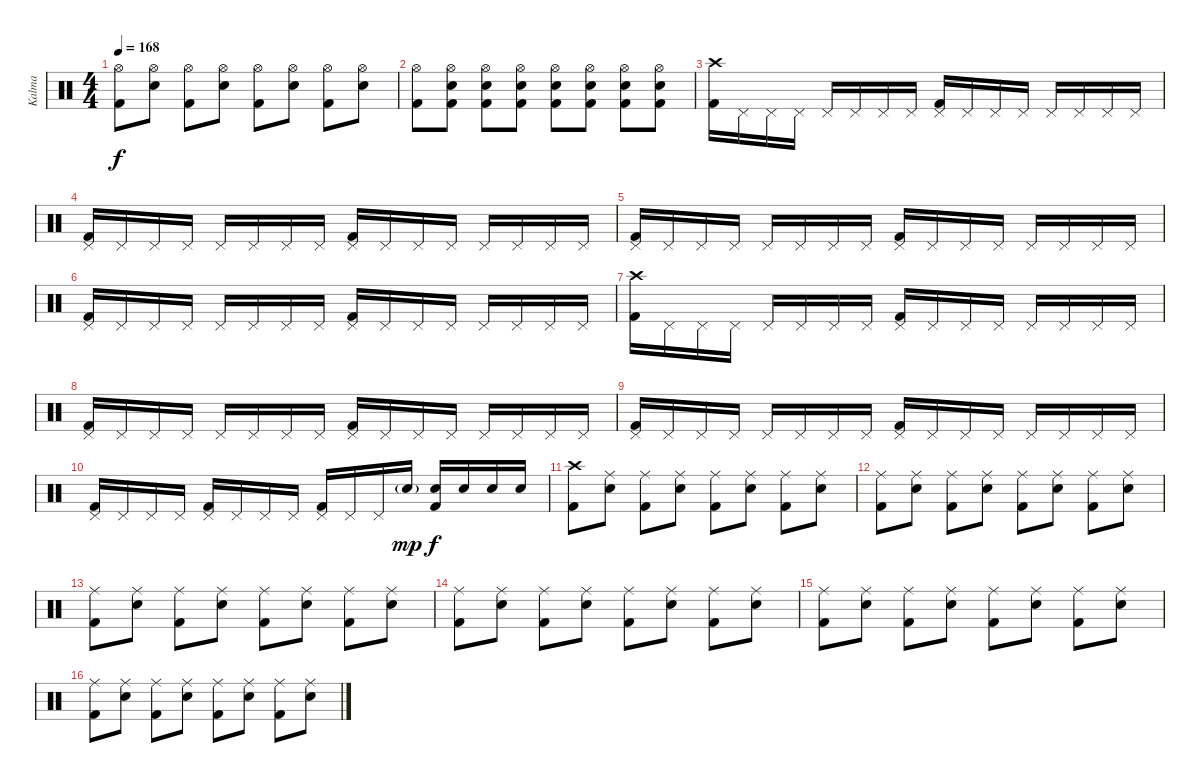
\track ("Kalma" "Kalma") {instrument percussion}
\staff {score}
\articulation defaults
\ts (4 4)
\tempo 168
\clef neutral
\ks c
("Hi-Hat (open)" "Kick (hit) 2").8{dy f} ("Hi-Hat (open)" "Snare (hit) 2").8 ("Hi-Hat (open)" "Kick (hit) 2").8 ("Hi-Hat (open)" "Snare (hit) 2").8 ("Hi-Hat (open)" "Kick (hit) 2").8 ("Hi-Hat (open)" "Snare (hit) 2").8 ("Hi-Hat (open)" "Kick (hit) 2").8 ("Hi-Hat (open)" "Snare (hit) 2").8 |
("Hi-Hat (open)" "Kick (hit) 2").8 ("Hi-Hat (open)" "Snare (hit) 2" "Kick (hit) 2").8 ("Hi-Hat (open)" "Snare (hit) 2" "Kick (hit) 2").8 ("Hi-Hat (open)" "Snare (hit) 2" "Kick (hit) 2").8 ("Hi-Hat (open)" "Snare (hit) 2" "Kick (hit) 2").8 ("Hi-Hat (open)" "Snare (hit) 2" "Kick (hit) 2").8 ("Hi-Hat (open)" "Snare (hit) 2" "Kick (hit) 2").8 ("Hi-Hat (open)" "Snare (hit) 2" "Kick (hit) 2").8 |
("Crash high (hit)" "Kick (hit) 2").16 "Pedal Hi-Hat (hit)".16 "Pedal Hi-Hat (hit)".16 "Pedal Hi-Hat (hit)".16 "Pedal Hi-Hat (hit)".16 "Pedal Hi-Hat (hit)".16 "Pedal Hi-Hat (hit)".16 "Pedal Hi-Hat (hit)".16 ("Pedal Hi-Hat (hit)" "Kick (hit) 2").16 "Pedal Hi-Hat (hit)".16 "Pedal Hi-Hat (hit)".16 "Pedal Hi-Hat (hit)".16 "Pedal Hi-Hat (hit)".16 "Pedal Hi-Hat (hit)".16 "Pedal Hi-Hat (hit)".16 "Pedal Hi-Hat (hit)".16 |
("Pedal Hi-Hat (hit)" "Kick (hit) 2").16 "Pedal Hi-Hat (hit)".16 "Pedal Hi-Hat (hit)".16 "Pedal Hi-Hat (hit)".16 "Pedal Hi-Hat (hit)".16 "Pedal Hi-Hat (hit)".16 "Pedal Hi-Hat (hit)".16 "Pedal Hi-Hat (hit)".16 ("Pedal Hi-Hat (hit)" "Kick (hit) 2").16 "Pedal Hi-Hat (hit)".16 "Pedal Hi-Hat (hit)".16 "Pedal Hi-Hat (hit)".16 "Pedal Hi-Hat (hit)".16 "Pedal Hi-Hat (hit)".16 "Pedal Hi-Hat (hit)".16 "Pedal Hi-Hat (hit)".16 |
("Pedal Hi-Hat (hit)" "Kick (hit) 2").16 "Pedal Hi-Hat (hit)".16 "Pedal Hi-Hat (hit)".16 "Pedal Hi-Hat (hit)".16 "Pedal Hi-Hat (hit)".16 "Pedal Hi-Hat (hit)".16 "Pedal Hi-Hat (hit)".16 "Pedal Hi-Hat (hit)".16 ("Pedal Hi-Hat (hit)" "Kick (hit) 2").16 "Pedal Hi-Hat (hit)".16 "Pedal Hi-Hat (hit)".16 "Pedal Hi-Hat (hit)".16 "Pedal Hi-Hat (hit)".16 "Pedal Hi-Hat (hit)".16 "Pedal Hi-Hat (hit)".16 "Pedal Hi-Hat (hit)".16 |
("Pedal Hi-Hat (hit)" "Kick (hit) 2").16 "Pedal Hi-Hat (hit)".16 "Pedal Hi-Hat (hit)".16 "Pedal Hi-Hat (hit)".16 "Pedal Hi-Hat (hit)".16 "Pedal Hi-Hat (hit)".16 "Pedal Hi-Hat (hit)".16 "Pedal Hi-Hat (hit)".16 ("Pedal Hi-Hat (hit)" "Kick (hit) 2").16 "Pedal Hi-Hat (hit)".16 "Pedal Hi-Hat (hit)".16 "Pedal Hi-Hat (hit)".16 "Pedal Hi-Hat (hit)".16 "Pedal Hi-Hat (hit)".16 "Pedal Hi-Hat (hit)".16 "Pedal Hi-Hat (hit)".16 |
("Crash high (hit)" "Kick (hit) 2").16 "Pedal Hi-Hat (hit)".16 "Pedal Hi-Hat (hit)".16 "Pedal Hi-Hat (hit)".16 "Pedal Hi-Hat (hit)".16 "Pedal Hi-Hat (hit)".16 "Pedal Hi-Hat (hit)".16 "Pedal Hi-Hat (hit)".16 ("Pedal Hi-Hat (hit)" "Kick (hit) 2").16 "Pedal Hi-Hat (hit)".16 "Pedal Hi-Hat (hit)".16 "Pedal Hi-Hat (hit)".16 "Pedal Hi-Hat (hit)".16 "Pedal Hi-Hat (hit)".16 "Pedal Hi-Hat (hit)".16 "Pedal Hi-Hat (hit)".16 |
("Pedal Hi-Hat (hit)" "Kick (hit) 2").16 "Pedal Hi-Hat (hit)".16 "Pedal Hi-Hat (hit)".16 "Pedal Hi-Hat (hit)".16 "Pedal Hi-Hat (hit)".16 "Pedal Hi-Hat (hit)".16 "Pedal Hi-Hat (hit)".16 "Pedal Hi-Hat (hit)".16 ("Pedal Hi-Hat (hit)" "Kick (hit) 2").16 "Pedal Hi-Hat (hit)".16 "Pedal Hi-Hat (hit)".16 "Pedal Hi-Hat (hit)".16 "Pedal Hi-Hat (hit)".16 "Pedal Hi-Hat (hit)".16 "Pedal Hi-Hat (hit)".16 "Pedal Hi-Hat (hit)".16 |
("Pedal Hi-Hat (hit)" "Kick (hit) 2").16 "Pedal Hi-Hat (hit)".16 "Pedal Hi-Hat (hit)".16 "Pedal Hi-Hat (hit)".16 "Pedal Hi-Hat (hit)".16 "Pedal Hi-Hat (hit)".16 "Pedal Hi-Hat (hit)".16 "Pedal Hi-Hat (hit)".16 ("Pedal Hi-Hat (hit)" "Kick (hit) 2").16 "Pedal Hi-Hat (hit)".16 "Pedal Hi-Hat (hit)".16 "Pedal Hi-Hat (hit)".16 "Pedal Hi-Hat (hit)".16 "Pedal Hi-Hat (hit)".16 "Pedal Hi-Hat (hit)".16 "Pedal Hi-Hat (hit)".16 |
("Pedal Hi-Hat (hit)" "Kick (hit) 2").16 "Pedal Hi-Hat (hit)".16 "Pedal Hi-Hat (hit)".16 "Pedal Hi-Hat (hit)".16 ("Pedal Hi-Hat (hit)" "Kick (hit) 2").16 "Pedal Hi-Hat (hit)".16 "Pedal Hi-Hat (hit)".16 "Pedal Hi-Hat (hit)".16 ("Pedal Hi-Hat (hit)" "Kick (hit) 2").16 "Pedal Hi-Hat (hit)".16 "Pedal Hi-Hat (hit)".16 "Snare (hit) 2"{g}.16{dy mp} ("Snare (hit) 2" "Kick (hit) 2").16{dy f} "Snare (hit) 2".16 "Snare (hit) 2".16 "Snare (hit) 2".16 |
("Crash high (hit)" "Kick (hit) 2").8 ("Ride (middle)" "Snare (hit) 2").8 ("Ride (middle)" "Kick (hit) 2").8 ("Ride (middle)" "Snare (hit) 2").8 ("Ride (middle)" "Kick (hit) 2").8 ("Ride (middle)" "Snare (hit) 2").8 ("Ride (middle)" "Kick (hit) 2").8 ("Ride (middle)" "Snare (hit) 2").8 |
("Ride (middle)" "Kick (hit) 2").8 ("Ride (middle)" "Snare (hit) 2").8 ("Ride (middle)" "Kick (hit) 2").8 ("Ride (middle)" "Snare (hit) 2").8 ("Ride (middle)" "Kick (hit) 2").8 ("Ride (middle)" "Snare (hit) 2").8 ("Ride (middle)" "Kick (hit) 2").8 ("Ride (middle)" "Snare (hit) 2").8 |
("Ride (middle)" "Kick (hit) 2").8 ("Ride (middle)" "Snare (hit) 2").8 ("Ride (middle)" "Kick (hit) 2").8 ("Ride (middle)" "Snare (hit) 2").8 ("Ride (middle)" "Kick (hit) 2").8 ("Ride (middle)" "Snare (hit) 2").8 ("Ride (middle)" "Kick (hit) 2").8 ("Ride (middle)" "Snare (hit) 2").8 |
("Ride (middle)" "Kick (hit) 2").8 ("Ride (middle)" "Snare (hit) 2").8 ("Ride (middle)" "Kick (hit) 2").8 ("Ride (middle)" "Snare (hit) 2").8 ("Ride (middle)" "Kick (hit) 2").8 ("Ride (middle)" "Snare (hit) 2").8 ("Ride (middle)" "Kick (hit) 2").8 ("Ride (middle)" "Snare (hit) 2").8 |
("Ride (middle)" "Kick (hit) 2").8 ("Ride (middle)" "Snare (hit) 2").8 ("Ride (middle)" "Kick (hit) 2").8 ("Ride (middle)" "Snare (hit) 2").8 ("Ride (middle)" "Kick (hit) 2").8 ("Ride (middle)" "Snare (hit) 2").8 ("Ride (middle)" "Kick (hit) 2").8 ("Ride (middle)" "Snare (hit) 2").8 |
("Ride (middle)" "Kick (hit) 2").8 ("Ride (middle)" "Snare (hit) 2").8 ("Ride (middle)" "Kick (hit) 2").8 ("Ride (middle)" "Snare (hit) 2").8 ("Ride (middle)" "Kick (hit) 2").8 ("Ride (middle)" "Snare (hit) 2").8 ("Ride (middle)" "Kick (hit) 2").8 ("Ride (middle)" "Snare (hit) 2").8
